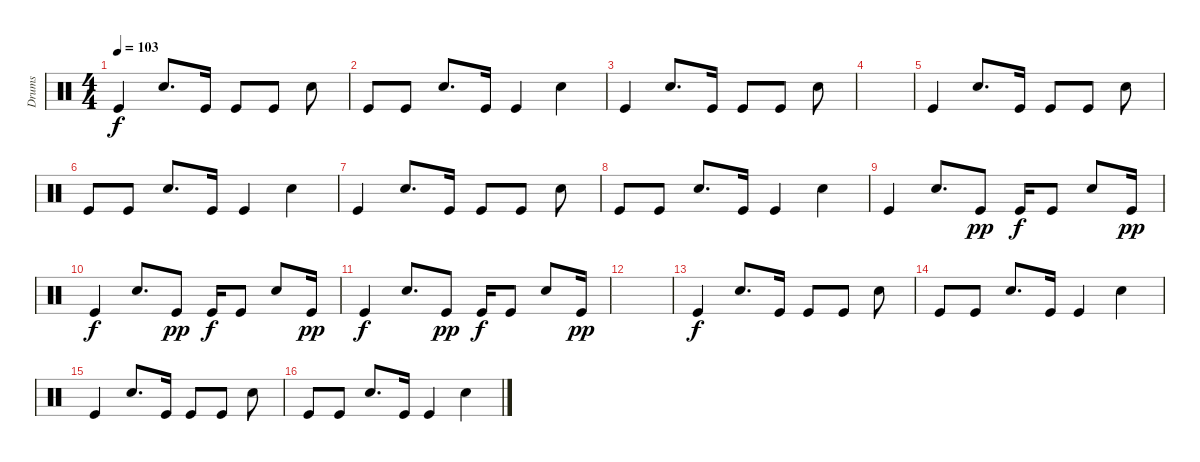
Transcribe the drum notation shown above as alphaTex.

\track ("Drums" "Drums") {instrument percussion}
\staff {score}
\articulation defaults
\ts (4 4)
\tempo 103
\clef neutral
\ks c "Kick (hit)".4{dy f} "Snare (hit) 2".8{d} "Kick (hit)".16 "Kick (hit)".8 "Kick (hit)".8 "Snare (hit) 2".8
|
"Kick (hit)".8 "Kick (hit)".8 "Snare (hit) 2".8{d} "Kick (hit)".16 "Kick (hit)".4 "Snare (hit) 2".4 |
"Kick (hit)".4 "Snare (hit) 2".8{d} "Kick (hit)".16 "Kick (hit)".8 "Kick (hit)".8 "Snare (hit) 2".8 |
|
"Kick (hit)".4 "Snare (hit) 2".8{d} "Kick (hit)".16 "Kick (hit)".8 "Kick (hit)".8 "Snare (hit) 2".8 |
"Kick (hit)".8 "Kick (hit)".8 "Snare (hit) 2".8{d} "Kick (hit)".16 "Kick (hit)".4 "Snare (hit) 2".4 |
"Kick (hit)".4 "Snare (hit) 2".8{d} "Kick (hit)".16 "Kick (hit)".8 "Kick (hit)".8 "Snare (hit) 2".8 |
"Kick (hit)".8 "Kick (hit)".8 "Snare (hit) 2".8{d} "Kick (hit)".16 "Kick (hit)".4 "Snare (hit) 2".4 |
"Kick (hit)".4 "Snare (hit) 2".8{d} "Kick (hit)".8{dy pp} "Kick (hit)".16{dy f} "Kick (hit)".8 "Snare (hit) 2".8 "Kick (hit)".16{dy pp} |
"Kick (hit)".4{dy f} "Snare (hit) 2".8{d} "Kick (hit)".8{dy pp} "Kick (hit)".16{dy f} "Kick (hit)".8 "Snare (hit) 2".8 "Kick (hit)".16{dy pp} |
"Kick (hit)".4{dy f} "Snare (hit) 2".8{d} "Kick (hit)".8{dy pp} "Kick (hit)".16{dy f} "Kick (hit)".8 "Snare (hit) 2".8 "Kick (hit)".16{dy pp} |
|
"Kick (hit)".4{dy f} "Snare (hit) 2".8{d} "Kick (hit)".16 "Kick (hit)".8 "Kick (hit)".8 "Snare (hit) 2".8 |
"Kick (hit)".8 "Kick (hit)".8 "Snare (hit) 2".8{d} "Kick (hit)".16 "Kick (hit)".4 "Snare (hit) 2".4 |
"Kick (hit)".4 "Snare (hit) 2".8{d} "Kick (hit)".16 "Kick (hit)".8 "Kick (hit)".8 "Snare (hit) 2".8 |
"Kick (hit)".8 "Kick (hit)".8 "Snare (hit) 2".8{d} "Kick (hit)".16 "Kick (hit)".4 "Snare (hit) 2".4
